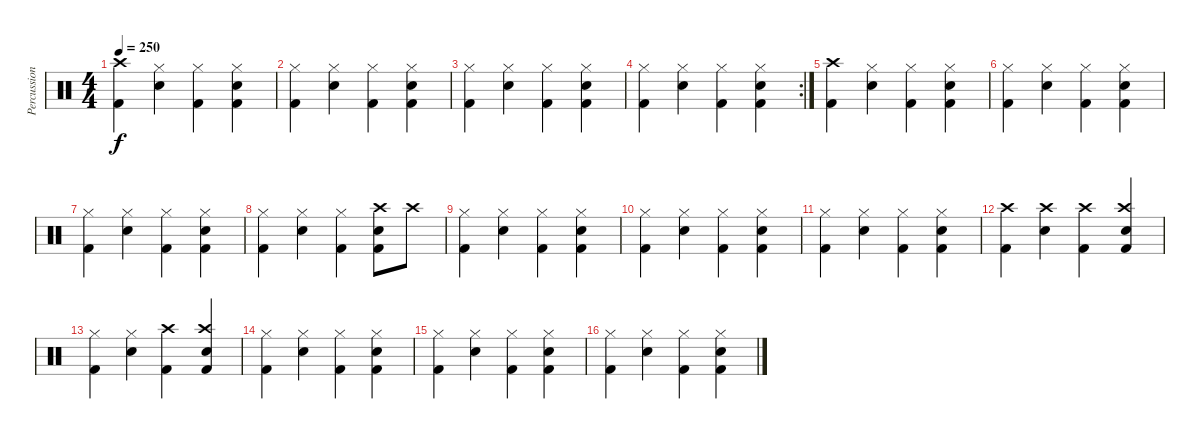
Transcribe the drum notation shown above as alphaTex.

\track ("Percussion" "Percussion") {instrument percussion}
\staff {score}
\articulation defaults
\ts (4 4)
\tempo 250
\clef neutral
\ks c
("Kick (hit) 2" "Crash high (hit)").4{dy f} ("Electric Snare (hit)" "Hi-Hat (closed)").4 ("Kick (hit) 2" "Hi-Hat (closed)").4 ("Electric Snare (hit)" "Kick (hit) 2" "Hi-Hat (closed)").4 |
("Kick (hit) 2" "Hi-Hat (closed)").4 ("Electric Snare (hit)" "Hi-Hat (closed)").4 ("Kick (hit) 2" "Hi-Hat (closed)").4 ("Electric Snare (hit)" "Kick (hit) 2" "Hi-Hat (closed)").4 |
("Kick (hit) 2" "Hi-Hat (closed)").4 ("Electric Snare (hit)" "Hi-Hat (closed)").4 ("Kick (hit) 2" "Hi-Hat (closed)").4 ("Electric Snare (hit)" "Kick (hit) 2" "Hi-Hat (closed)").4 |
\rc 2
("Kick (hit) 2" "Hi-Hat (closed)").4 ("Electric Snare (hit)" "Hi-Hat (closed)").4 ("Kick (hit) 2" "Hi-Hat (closed)").4 ("Electric Snare (hit)" "Kick (hit) 2" "Hi-Hat (closed)").4 |
("Kick (hit) 2" "Crash high (hit)").4 ("Electric Snare (hit)" "Hi-Hat (closed)").4 ("Kick (hit) 2" "Hi-Hat (closed)").4 ("Electric Snare (hit)" "Kick (hit) 2" "Hi-Hat (closed)").4 |
("Kick (hit) 2" "Hi-Hat (closed)").4 ("Electric Snare (hit)" "Hi-Hat (closed)").4 ("Kick (hit) 2" "Hi-Hat (closed)").4 ("Electric Snare (hit)" "Kick (hit) 2" "Hi-Hat (closed)").4 |
("Kick (hit) 2" "Hi-Hat (closed)").4 ("Electric Snare (hit)" "Hi-Hat (closed)").4 ("Kick (hit) 2" "Hi-Hat (closed)").4 ("Electric Snare (hit)" "Kick (hit) 2" "Hi-Hat (closed)").4 |
("Kick (hit) 2" "Hi-Hat (closed)").4 ("Electric Snare (hit)" "Hi-Hat (closed)").4 ("Kick (hit) 2" "Hi-Hat (closed)").4 ("Electric Snare (hit)" "Kick (hit) 2" "Crash high (hit)").8 "Crash high (hit)".8 |
("Kick (hit) 2" "Hi-Hat (closed)").4 ("Electric Snare (hit)" "Hi-Hat (closed)").4 ("Kick (hit) 2" "Hi-Hat (closed)").4 ("Electric Snare (hit)" "Kick (hit) 2" "Hi-Hat (closed)").4 |
("Kick (hit) 2" "Hi-Hat (closed)").4 ("Electric Snare (hit)" "Hi-Hat (closed)").4 ("Kick (hit) 2" "Hi-Hat (closed)").4 ("Electric Snare (hit)" "Kick (hit) 2" "Hi-Hat (closed)").4 |
("Kick (hit) 2" "Hi-Hat (closed)").4 ("Electric Snare (hit)" "Hi-Hat (closed)").4 ("Kick (hit) 2" "Hi-Hat (closed)").4 ("Electric Snare (hit)" "Kick (hit) 2" "Hi-Hat (closed)").4 |
("Kick (hit) 2" "Crash high (hit)").4 ("Electric Snare (hit)" "Crash high (hit)").4 ("Kick (hit) 2" "Crash high (hit)").4 ("Electric Snare (hit)" "Kick (hit) 2" "Crash high (hit)").4 |
("Kick (hit) 2" "Hi-Hat (closed)").4 ("Electric Snare (hit)" "Hi-Hat (closed)").4 ("Kick (hit) 2" "Crash high (hit)").4 ("Electric Snare (hit)" "Kick (hit) 2" "Crash high (hit)").4 |
("Kick (hit) 2" "Hi-Hat (closed)").4 ("Electric Snare (hit)" "Hi-Hat (closed)").4 ("Kick (hit) 2" "Hi-Hat (closed)").4 ("Electric Snare (hit)" "Kick (hit) 2" "Hi-Hat (closed)").4 |
("Kick (hit) 2" "Hi-Hat (closed)").4 ("Electric Snare (hit)" "Hi-Hat (closed)").4 ("Kick (hit) 2" "Hi-Hat (closed)").4 ("Electric Snare (hit)" "Kick (hit) 2" "Hi-Hat (closed)").4 |
("Kick (hit) 2" "Hi-Hat (closed)").4 ("Electric Snare (hit)" "Hi-Hat (closed)").4 ("Kick (hit) 2" "Hi-Hat (closed)").4 ("Electric Snare (hit)" "Kick (hit) 2" "Hi-Hat (closed)").4
